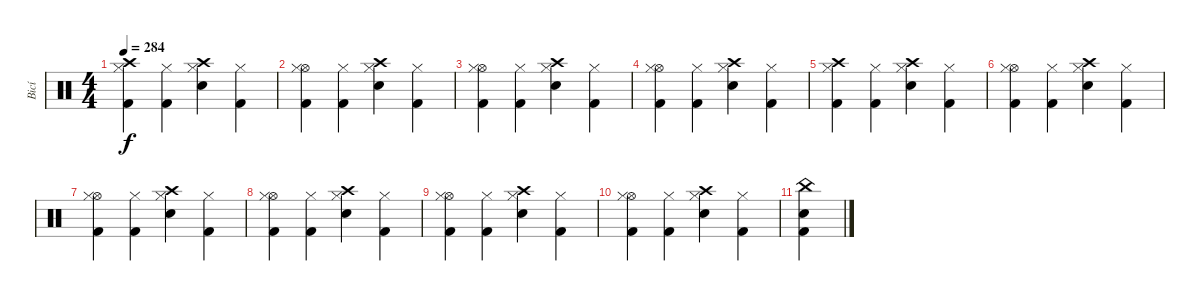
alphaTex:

\track ("Bicí" "Bicí") {instrument percussion}
\staff {score}
\articulation defaults
\ts (4 4)
\tempo 284
\clef neutral
\ks c
("Crash high (hit)" "Hi-Hat (closed)" "Kick (hit) 2").4{dy f} ("Hi-Hat (closed)" "Kick (hit) 2").4 ("Crash high (hit)" "Hi-Hat (closed)" "Electric Snare (hit)").4 ("Hi-Hat (closed)" "Kick (hit) 2").4 |
("Hi-Hat (open)" "Hi-Hat (closed)" "Kick (hit) 2").4 ("Hi-Hat (closed)" "Kick (hit) 2").4 ("Crash high (hit)" "Hi-Hat (closed)" "Electric Snare (hit)").4 ("Hi-Hat (closed)" "Kick (hit) 2").4 |
("Hi-Hat (open)" "Hi-Hat (closed)" "Kick (hit) 2").4 ("Hi-Hat (closed)" "Kick (hit) 2").4 ("Crash high (hit)" "Hi-Hat (closed)" "Electric Snare (hit)").4 ("Hi-Hat (closed)" "Kick (hit) 2").4 |
("Hi-Hat (open)" "Hi-Hat (closed)" "Kick (hit) 2").4 ("Hi-Hat (closed)" "Kick (hit) 2").4 ("Crash high (hit)" "Hi-Hat (closed)" "Electric Snare (hit)").4 ("Hi-Hat (closed)" "Kick (hit) 2").4 |
("Crash high (hit)" "Hi-Hat (closed)" "Kick (hit) 2").4 ("Hi-Hat (closed)" "Kick (hit) 2").4 ("Crash high (hit)" "Hi-Hat (closed)" "Electric Snare (hit)").4 ("Hi-Hat (closed)" "Kick (hit) 2").4 |
("Hi-Hat (open)" "Hi-Hat (closed)" "Kick (hit) 2").4 ("Hi-Hat (closed)" "Kick (hit) 2").4 ("Crash high (hit)" "Hi-Hat (closed)" "Electric Snare (hit)").4 ("Hi-Hat (closed)" "Kick (hit) 2").4 |
("Hi-Hat (open)" "Hi-Hat (closed)" "Kick (hit) 2").4 ("Hi-Hat (closed)" "Kick (hit) 2").4 ("Crash high (hit)" "Hi-Hat (closed)" "Electric Snare (hit)").4 ("Hi-Hat (closed)" "Kick (hit) 2").4 |
("Hi-Hat (open)" "Hi-Hat (closed)" "Kick (hit) 2").4 ("Hi-Hat (closed)" "Kick (hit) 2").4 ("Crash high (hit)" "Hi-Hat (closed)" "Electric Snare (hit)").4 ("Hi-Hat (closed)" "Kick (hit) 2").4 |
("Hi-Hat (open)" "Hi-Hat (closed)" "Kick (hit) 2").4 ("Hi-Hat (closed)" "Kick (hit) 2").4 ("Crash high (hit)" "Hi-Hat (closed)" "Electric Snare (hit)").4 ("Hi-Hat (closed)" "Kick (hit) 2").4 |
("Hi-Hat (open)" "Hi-Hat (closed)" "Kick (hit) 2").4 ("Hi-Hat (closed)" "Kick (hit) 2").4 ("Crash high (hit)" "Hi-Hat (closed)" "Electric Snare (hit)").4 ("Hi-Hat (closed)" "Kick (hit) 2").4 |
("China (hit)" "Electric Snare (hit)" "Kick (hit) 2").4
